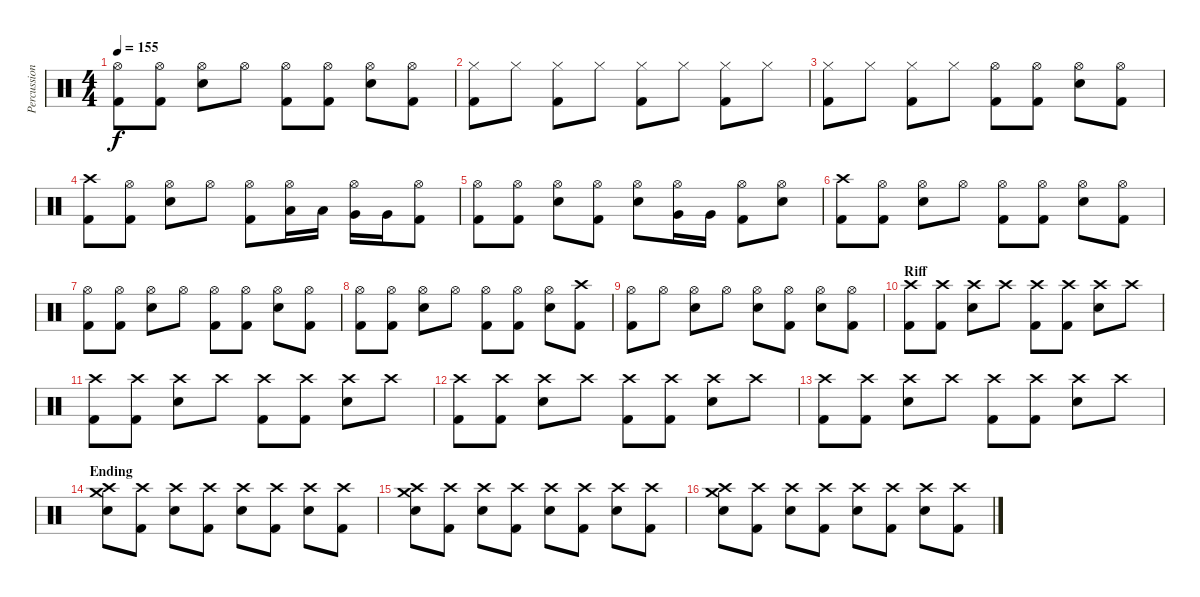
\track ("Percussion" "Percussion") {instrument percussion}
\staff {score}
\articulation defaults
\ts (4 4)
\tempo 155
\clef neutral
\ks c
("Hi-Hat (open)" "Kick (hit) 2").8{dy f} ("Hi-Hat (open)" "Kick (hit) 2").8 ("Hi-Hat (open)" "Snare (hit) 2").8 "Hi-Hat (open)".8 ("Hi-Hat (open)" "Kick (hit) 2").8 ("Hi-Hat (open)" "Kick (hit) 2").8 ("Hi-Hat (open)" "Snare (hit) 2").8 ("Hi-Hat (open)" "Kick (hit) 2").8 |
("Hi-Hat (closed)" "Kick (hit) 2").8 "Hi-Hat (closed)".8 ("Hi-Hat (closed)" "Kick (hit) 2").8 "Hi-Hat (closed)".8 ("Hi-Hat (closed)" "Kick (hit) 2").8 "Hi-Hat (closed)".8 ("Hi-Hat (closed)" "Kick (hit) 2").8 "Hi-Hat (closed)".8 |
("Hi-Hat (closed)" "Kick (hit) 2").8 "Hi-Hat (closed)".8 ("Hi-Hat (closed)" "Kick (hit) 2").8 "Hi-Hat (closed)".8 ("Hi-Hat (open)" "Kick (hit) 2").8 ("Hi-Hat (open)" "Kick (hit) 2").8 ("Hi-Hat (open)" "Snare (hit) 2").8 ("Hi-Hat (open)" "Kick (hit) 2").8 |
("Crash high (hit)" "Kick (hit) 2").8 ("Hi-Hat (open)" "Kick (hit) 2").8 ("Hi-Hat (open)" "Snare (hit) 2").8 "Hi-Hat (open)".8 ("Hi-Hat (open)" "Kick (hit) 2").8 ("Hi-Hat (open)" "Low Tom (hit)").16 "Low Tom (hit)".16 ("Hi-Hat (open)" "Very Low Tom (hit)").16 "Very Low Tom (hit)".16 ("Hi-Hat (open)" "Kick (hit) 2").8 |
("Hi-Hat (open)" "Kick (hit) 2").8 ("Hi-Hat (open)" "Kick (hit) 2").8 ("Hi-Hat (open)" "Snare (hit) 2").8 ("Hi-Hat (open)" "Kick (hit) 2").8 ("Hi-Hat (open)" "Snare (hit) 2").8 ("Hi-Hat (open)" "Very Low Tom (hit)").16 "Very Low Tom (hit)".16 ("Hi-Hat (open)" "Kick (hit) 2").8 ("Hi-Hat (open)" "Snare (hit) 2").8 |
("Crash high (hit)" "Kick (hit) 2").8 ("Hi-Hat (open)" "Kick (hit) 2").8 ("Hi-Hat (open)" "Snare (hit) 2").8 "Hi-Hat (open)".8 ("Hi-Hat (open)" "Kick (hit) 2").8 ("Hi-Hat (open)" "Kick (hit) 2").8 ("Hi-Hat (open)" "Snare (hit) 2").8 ("Hi-Hat (open)" "Kick (hit) 2").8 |
("Hi-Hat (open)" "Kick (hit) 2").8 ("Hi-Hat (open)" "Kick (hit) 2").8 ("Hi-Hat (open)" "Snare (hit) 2").8 "Hi-Hat (open)".8 ("Hi-Hat (open)" "Kick (hit) 2").8 ("Hi-Hat (open)" "Kick (hit) 2").8 ("Hi-Hat (open)" "Snare (hit) 2").8 ("Hi-Hat (open)" "Kick (hit) 2").8 |
("Hi-Hat (open)" "Kick (hit) 2").8 ("Hi-Hat (open)" "Kick (hit) 2").8 ("Hi-Hat (open)" "Snare (hit) 2").8 "Hi-Hat (open)".8 ("Hi-Hat (open)" "Kick (hit) 2").8 ("Hi-Hat (open)" "Kick (hit) 2").8 ("Hi-Hat (open)" "Snare (hit) 2").8 ("Crash high (hit)" "Kick (hit) 2").8 |
("Hi-Hat (open)" "Kick (hit) 2").8 "Hi-Hat (open)".8 ("Hi-Hat (open)" "Snare (hit) 2").8 "Hi-Hat (open)".8 ("Hi-Hat (open)" "Snare (hit) 2").8 ("Hi-Hat (open)" "Kick (hit) 2").8 ("Hi-Hat (open)" "Snare (hit) 2").8 ("Hi-Hat (open)" "Kick (hit) 2").8 |
\section ("" "Riff")
("Crash high (hit)" "Kick (hit) 2").8 ("Crash high (hit)" "Kick (hit) 2").8 ("Crash high (hit)" "Snare (hit) 2").8 "Crash high (hit)".8 ("Crash high (hit)" "Kick (hit) 2").8 ("Crash high (hit)" "Kick (hit) 2").8 ("Crash high (hit)" "Snare (hit) 2").8 "Crash high (hit)".8 |
("Crash high (hit)" "Kick (hit) 2").8 ("Crash high (hit)" "Kick (hit) 2").8 ("Crash high (hit)" "Snare (hit) 2").8 "Crash high (hit)".8 ("Crash high (hit)" "Kick (hit) 2").8 ("Crash high (hit)" "Kick (hit) 2").8 ("Crash high (hit)" "Snare (hit) 2").8 "Crash high (hit)".8 |
("Crash high (hit)" "Kick (hit) 2").8 ("Crash high (hit)" "Kick (hit) 2").8 ("Crash high (hit)" "Snare (hit) 2").8 "Crash high (hit)".8 ("Crash high (hit)" "Kick (hit) 2").8 ("Crash high (hit)" "Kick (hit) 2").8 ("Crash high (hit)" "Snare (hit) 2").8 "Crash high (hit)".8 |
("Crash high (hit)" "Kick (hit) 2").8 ("Crash high (hit)" "Kick (hit) 2").8 ("Crash high (hit)" "Snare (hit) 2").8 "Crash high (hit)".8 ("Crash high (hit)" "Kick (hit) 2").8 ("Crash high (hit)" "Kick (hit) 2").8 ("Crash high (hit)" "Snare (hit) 2").8 "Crash high (hit)".8 |
\section ("" "Ending")
("Crash high (hit)" "Snare (hit) 2" "Crash medium (hit)").8 ("Crash high (hit)" "Kick (hit) 2").8 ("Crash high (hit)" "Snare (hit) 2").8 ("Crash high (hit)" "Kick (hit) 2").8 ("Crash high (hit)" "Snare (hit) 2").8 ("Crash high (hit)" "Kick (hit) 2").8 ("Crash high (hit)" "Snare (hit) 2").8 ("Crash high (hit)" "Kick (hit) 2").8 |
("Crash high (hit)" "Snare (hit) 2" "Crash medium (hit)").8 ("Crash high (hit)" "Kick (hit) 2").8 ("Crash high (hit)" "Snare (hit) 2").8 ("Crash high (hit)" "Kick (hit) 2").8 ("Crash high (hit)" "Snare (hit) 2").8 ("Crash high (hit)" "Kick (hit) 2").8 ("Crash high (hit)" "Snare (hit) 2").8 ("Crash high (hit)" "Kick (hit) 2").8 |
("Crash high (hit)" "Snare (hit) 2" "Crash medium (hit)").8 ("Crash high (hit)" "Kick (hit) 2").8 ("Crash high (hit)" "Snare (hit) 2").8 ("Crash high (hit)" "Kick (hit) 2").8 ("Crash high (hit)" "Snare (hit) 2").8 ("Crash high (hit)" "Kick (hit) 2").8 ("Crash high (hit)" "Snare (hit) 2").8 ("Crash high (hit)" "Kick (hit) 2").8
